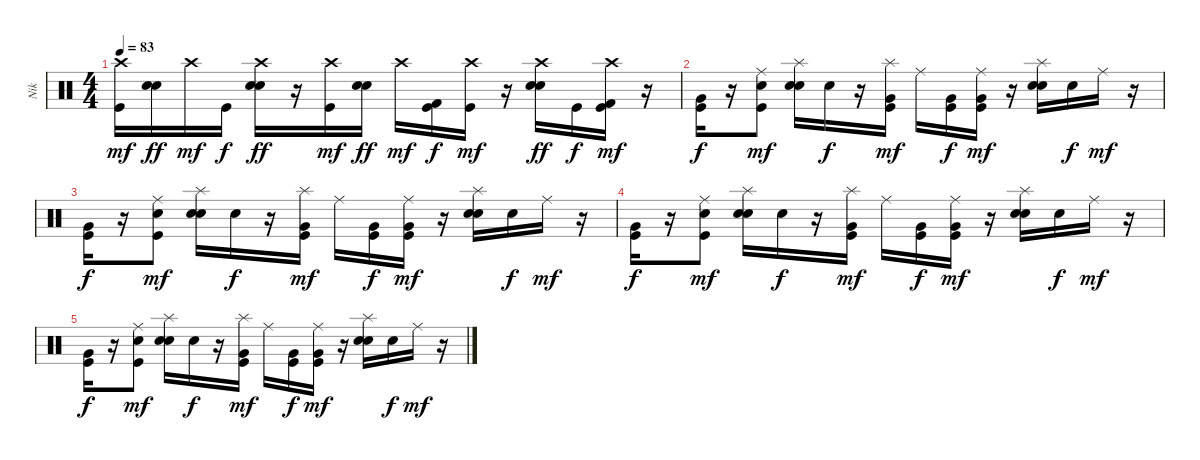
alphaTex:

\track ("Nik" "Nik") {instrument percussion}
\staff {score}
\articulation defaults
\ts (4 4)
\tempo 83
\clef neutral
\ks c
("Crash high (hit)" "Kick (hit)").16{dy mf} ("Electric Snare (hit)" "Electric Snare (hit)").16{dy ff} "Crash high (hit)".16{dy mf} "Kick (hit)".16{dy f} ("Crash high (hit)" "Electric Snare (hit)" "Electric Snare (hit)").16{dy ff} r.16 ("Crash high (hit)" "Kick (hit)").16{dy mf} ("Electric Snare (hit)" "Electric Snare (hit)").16{dy ff} "Crash high (hit)".16{dy mf} ("Kick (hit) 2" "Kick (hit)").16{dy f} ("Crash high (hit)" "Kick (hit)").16{dy mf} r.16 ("Crash high (hit)" "Electric Snare (hit)" "Electric Snare (hit)").16{dy ff} "Kick (hit)".16{dy f} ("Crash high (hit)" "Kick (hit) 2" "Kick (hit)").16{dy mf} r.16 |
("Kick (hit)" "Very Low Tom (hit)").16{dy f volume 12} r.16 ("Ride (middle)" "Kick (hit)" "Electric Snare (hit)").8{dy mf} ("Splash (hit)" "Electric Snare (hit)" "Electric Snare (hit)").16 "Electric Snare (hit)".16{dy f} r.16 ("Splash (hit)" "Kick (hit)" "Very Low Tom (hit)").16{dy mf} "Ride (middle)".16 ("Kick (hit)" "Very Low Tom (hit)").16{dy f} ("Ride (middle)" "Kick (hit)" "Very Low Tom (hit)").16{dy mf} r.16 ("Splash (hit)" "Electric Snare (hit)" "Electric Snare (hit)").16 "Electric Snare (hit)".16{dy f} "Ride (middle)".16{dy mf} r.16 |
("Kick (hit)" "Very Low Tom (hit)").16{dy f volume 10} r.16 ("Ride (middle)" "Kick (hit)" "Electric Snare (hit)").8{dy mf} ("Splash (hit)" "Electric Snare (hit)" "Electric Snare (hit)").16 "Electric Snare (hit)".16{dy f} r.16 ("Splash (hit)" "Kick (hit)" "Very Low Tom (hit)").16{dy mf} "Ride (middle)".16 ("Kick (hit)" "Very Low Tom (hit)").16{dy f} ("Ride (middle)" "Kick (hit)" "Very Low Tom (hit)").16{dy mf} r.16 ("Splash (hit)" "Electric Snare (hit)" "Electric Snare (hit)").16 "Electric Snare (hit)".16{dy f} "Ride (middle)".16{dy mf} r.16 |
("Kick (hit)" "Very Low Tom (hit)").16{dy f volume 8} r.16 ("Ride (middle)" "Kick (hit)" "Electric Snare (hit)").8{dy mf} ("Splash (hit)" "Electric Snare (hit)" "Electric Snare (hit)").16 "Electric Snare (hit)".16{dy f} r.16 ("Splash (hit)" "Kick (hit)" "Very Low Tom (hit)").16{dy mf} "Ride (middle)".16{volume 5} ("Kick (hit)" "Very Low Tom (hit)").16{dy f} ("Ride (middle)" "Kick (hit)" "Very Low Tom (hit)").16{dy mf} r.16 ("Splash (hit)" "Electric Snare (hit)" "Electric Snare (hit)").16 "Electric Snare (hit)".16{dy f} "Ride (middle)".16{dy mf} r.16 |
("Kick (hit)" "Very Low Tom (hit)").16{dy f volume 3} r.16 ("Ride (middle)" "Kick (hit)" "Electric Snare (hit)").8{dy mf} ("Splash (hit)" "Electric Snare (hit)" "Electric Snare (hit)").16 "Electric Snare (hit)".16{dy f} r.16 ("Splash (hit)" "Kick (hit)" "Very Low Tom (hit)").16{dy mf} "Ride (middle)".16 ("Kick (hit)" "Very Low Tom (hit)").16{dy f volume 1} ("Ride (middle)" "Kick (hit)" "Very Low Tom (hit)").16{dy mf} r.16 ("Splash (hit)" "Electric Snare (hit)" "Electric Snare (hit)").16 "Electric Snare (hit)".16{dy f} "Ride (middle)".16{dy mf} r.16
